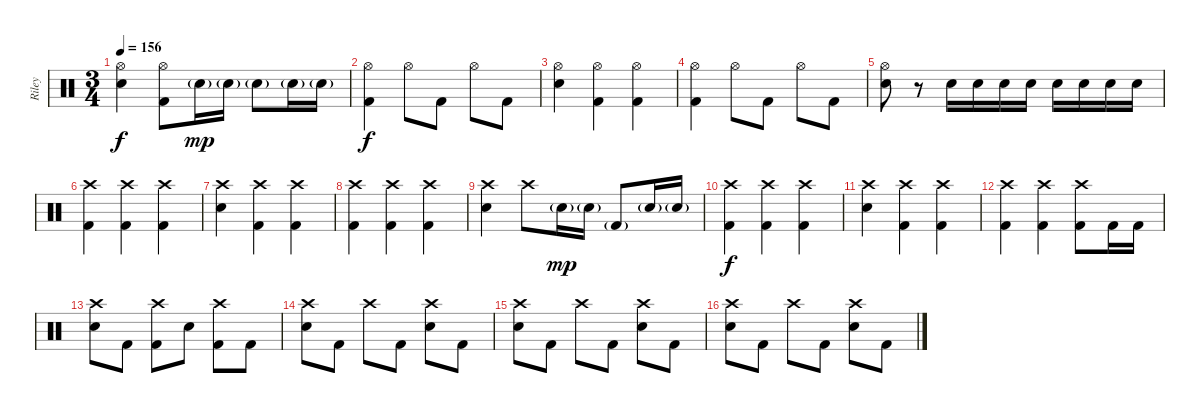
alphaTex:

\track ("Riley" "Riley") {instrument percussion}
\staff {score}
\articulation defaults
\ts (3 4)
\tempo 156
\clef neutral
\ks c
("Hi-Hat (open)" "Electric Snare (hit)").4{dy f} ("Hi-Hat (open)" "Kick (hit) 2").8 "Electric Snare (hit)"{g}.16{dy mp} "Electric Snare (hit)"{g}.16 "Electric Snare (hit)"{g}.8 "Electric Snare (hit)"{g}.16 "Electric Snare (hit)"{g}.16 |
("Hi-Hat (open)" "Kick (hit) 2").4{dy f} "Hi-Hat (open)".8 "Kick (hit) 2".8 "Hi-Hat (open)".8 "Kick (hit) 2".8 |
("Hi-Hat (open)" "Electric Snare (hit)").4 ("Hi-Hat (open)" "Kick (hit) 2").4 ("Hi-Hat (open)" "Kick (hit) 2").4 |
("Hi-Hat (open)" "Kick (hit) 2").4 "Hi-Hat (open)".8 "Kick (hit) 2".8 "Hi-Hat (open)".8 "Kick (hit) 2".8 |
("Hi-Hat (open)" "Electric Snare (hit)").8 r.8 "Electric Snare (hit)".16 "Electric Snare (hit)".16 "Electric Snare (hit)".16 "Electric Snare (hit)".16 "Electric Snare (hit)".16 "Electric Snare (hit)".16 "Electric Snare (hit)".16 "Electric Snare (hit)".16 |
("Crash high (hit)" "Kick (hit) 2").4 ("Crash high (hit)" "Kick (hit) 2").4 ("Crash high (hit)" "Kick (hit) 2").4 |
("Crash high (hit)" "Electric Snare (hit)").4 ("Crash high (hit)" "Kick (hit) 2").4 ("Crash high (hit)" "Kick (hit) 2").4 |
("Crash high (hit)" "Kick (hit) 2").4 ("Crash high (hit)" "Kick (hit) 2").4 ("Crash high (hit)" "Kick (hit) 2").4 |
("Crash high (hit)" "Electric Snare (hit)").4 "Crash high (hit)".8 "Electric Snare (hit)"{g}.16{dy mp} "Electric Snare (hit)"{g}.16 "Kick (hit) 2"{g}.8 "Electric Snare (hit)"{g}.16 "Electric Snare (hit)"{g}.16 |
("Crash high (hit)" "Kick (hit) 2").4{dy f} ("Crash high (hit)" "Kick (hit) 2").4 ("Crash high (hit)" "Kick (hit) 2").4 |
("Crash high (hit)" "Electric Snare (hit)").4 ("Crash high (hit)" "Kick (hit) 2").4 ("Crash high (hit)" "Kick (hit) 2").4 |
("Crash high (hit)" "Kick (hit) 2").4 ("Crash high (hit)" "Kick (hit) 2").4 ("Crash high (hit)" "Kick (hit) 2").8 "Kick (hit) 2".16 "Kick (hit) 2".16 |
("Crash high (hit)" "Electric Snare (hit)").8 "Kick (hit) 2".8 ("Crash high (hit)" "Kick (hit) 2").8 "Electric Snare (hit)".8 ("Crash high (hit)" "Kick (hit) 2").8 "Kick (hit) 2".8 |
("Crash high (hit)" "Electric Snare (hit)").8 "Kick (hit) 2".8 "Crash high (hit)".8 "Kick (hit) 2".8 ("Crash high (hit)" "Electric Snare (hit)").8 "Kick (hit) 2".8 |
("Crash high (hit)" "Electric Snare (hit)").8 "Kick (hit) 2".8 "Crash high (hit)".8 "Kick (hit) 2".8 ("Crash high (hit)" "Electric Snare (hit)").8 "Kick (hit) 2".8 |
("Crash high (hit)" "Electric Snare (hit)").8 "Kick (hit) 2".8 "Crash high (hit)".8 "Kick (hit) 2".8 ("Crash high (hit)" "Electric Snare (hit)").8 "Kick (hit) 2".8
